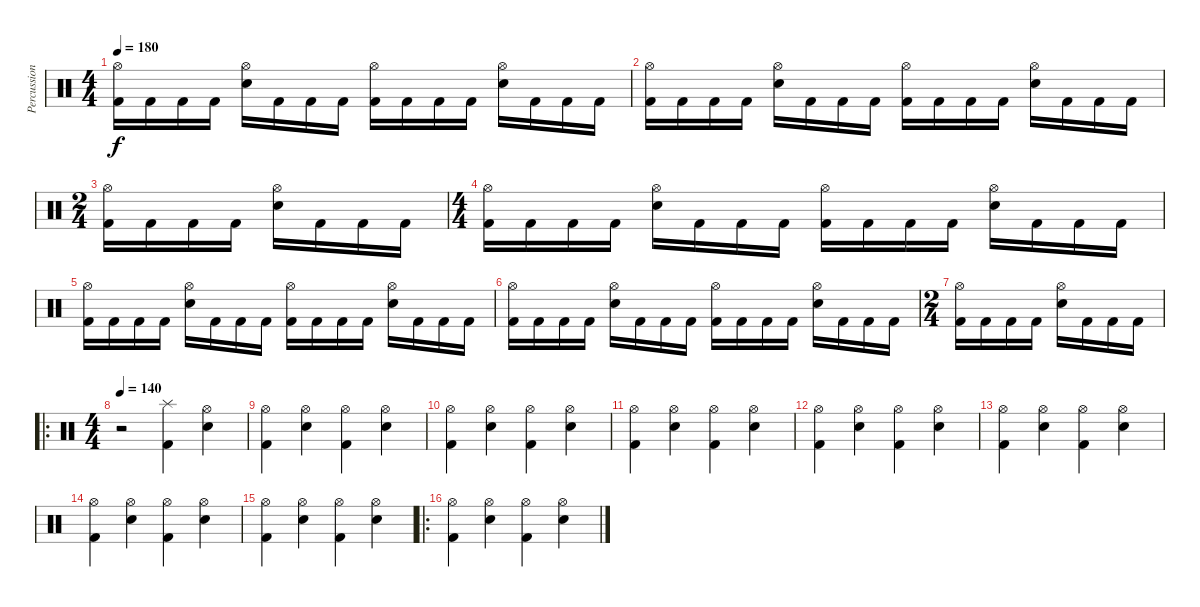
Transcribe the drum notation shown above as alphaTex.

\track ("Percussion" "Percussion") {instrument percussion}
\staff {score}
\articulation defaults
\ts (4 4)
\tempo 180
\clef neutral
\ks c
("Kick (hit) 2" "Hi-Hat (open)").16{dy f} "Kick (hit) 2".16 "Kick (hit) 2".16 "Kick (hit) 2".16 ("Snare (hit) 2" "Hi-Hat (open)").16 "Kick (hit) 2".16 "Kick (hit) 2".16 "Kick (hit) 2".16 ("Kick (hit) 2" "Hi-Hat (open)").16 "Kick (hit) 2".16 "Kick (hit) 2".16 "Kick (hit) 2".16 ("Snare (hit) 2" "Hi-Hat (open)").16 "Kick (hit) 2".16 "Kick (hit) 2".16 "Kick (hit) 2".16 |
("Kick (hit) 2" "Hi-Hat (open)").16 "Kick (hit) 2".16 "Kick (hit) 2".16 "Kick (hit) 2".16 ("Snare (hit) 2" "Hi-Hat (open)").16 "Kick (hit) 2".16 "Kick (hit) 2".16 "Kick (hit) 2".16 ("Kick (hit) 2" "Hi-Hat (open)").16 "Kick (hit) 2".16 "Kick (hit) 2".16 "Kick (hit) 2".16 ("Snare (hit) 2" "Hi-Hat (open)").16 "Kick (hit) 2".16 "Kick (hit) 2".16 "Kick (hit) 2".16 |
\ts (2 4)
("Kick (hit) 2" "Hi-Hat (open)").16 "Kick (hit) 2".16 "Kick (hit) 2".16 "Kick (hit) 2".16 ("Snare (hit) 2" "Hi-Hat (open)").16 "Kick (hit) 2".16 "Kick (hit) 2".16 "Kick (hit) 2".16 |
\ts (4 4)
("Kick (hit) 2" "Hi-Hat (open)").16 "Kick (hit) 2".16 "Kick (hit) 2".16 "Kick (hit) 2".16 ("Snare (hit) 2" "Hi-Hat (open)").16 "Kick (hit) 2".16 "Kick (hit) 2".16 "Kick (hit) 2".16 ("Kick (hit) 2" "Hi-Hat (open)").16 "Kick (hit) 2".16 "Kick (hit) 2".16 "Kick (hit) 2".16 ("Snare (hit) 2" "Hi-Hat (open)").16 "Kick (hit) 2".16 "Kick (hit) 2".16 "Kick (hit) 2".16 |
("Kick (hit) 2" "Hi-Hat (open)").16 "Kick (hit) 2".16 "Kick (hit) 2".16 "Kick (hit) 2".16 ("Snare (hit) 2" "Hi-Hat (open)").16 "Kick (hit) 2".16 "Kick (hit) 2".16 "Kick (hit) 2".16 ("Kick (hit) 2" "Hi-Hat (open)").16 "Kick (hit) 2".16 "Kick (hit) 2".16 "Kick (hit) 2".16 ("Snare (hit) 2" "Hi-Hat (open)").16 "Kick (hit) 2".16 "Kick (hit) 2".16 "Kick (hit) 2".16 |
("Kick (hit) 2" "Hi-Hat (open)").16 "Kick (hit) 2".16 "Kick (hit) 2".16 "Kick (hit) 2".16 ("Snare (hit) 2" "Hi-Hat (open)").16 "Kick (hit) 2".16 "Kick (hit) 2".16 "Kick (hit) 2".16 ("Kick (hit) 2" "Hi-Hat (open)").16 "Kick (hit) 2".16 "Kick (hit) 2".16 "Kick (hit) 2".16 ("Snare (hit) 2" "Hi-Hat (open)").16 "Kick (hit) 2".16 "Kick (hit) 2".16 "Kick (hit) 2".16 |
\ts (2 4)
("Kick (hit) 2" "Hi-Hat (open)").16 "Kick (hit) 2".16 "Kick (hit) 2".16 "Kick (hit) 2".16 ("Snare (hit) 2" "Hi-Hat (open)").16 "Kick (hit) 2".16 "Kick (hit) 2".16 "Kick (hit) 2".16 |
\ro
\ts (4 4)
\tempo 140
r.2 ("Kick (hit) 2" "Splash (hit)").4 ("Snare (hit) 2" "Hi-Hat (open)").4 |
("Kick (hit) 2" "Hi-Hat (open)").4 ("Snare (hit) 2" "Hi-Hat (open)").4 ("Kick (hit) 2" "Hi-Hat (open)").4 ("Snare (hit) 2" "Hi-Hat (open)").4 |
("Kick (hit) 2" "Hi-Hat (open)").4 ("Snare (hit) 2" "Hi-Hat (open)").4 ("Kick (hit) 2" "Hi-Hat (open)").4 ("Snare (hit) 2" "Hi-Hat (open)").4 |
("Kick (hit) 2" "Hi-Hat (open)").4 ("Snare (hit) 2" "Hi-Hat (open)").4 ("Kick (hit) 2" "Hi-Hat (open)").4 ("Snare (hit) 2" "Hi-Hat (open)").4 |
("Kick (hit) 2" "Hi-Hat (open)").4 ("Snare (hit) 2" "Hi-Hat (open)").4 ("Kick (hit) 2" "Hi-Hat (open)").4 ("Snare (hit) 2" "Hi-Hat (open)").4 |
("Kick (hit) 2" "Hi-Hat (open)").4 ("Snare (hit) 2" "Hi-Hat (open)").4 ("Kick (hit) 2" "Hi-Hat (open)").4 ("Snare (hit) 2" "Hi-Hat (open)").4 |
("Kick (hit) 2" "Hi-Hat (open)").4 ("Snare (hit) 2" "Hi-Hat (open)").4 ("Kick (hit) 2" "Hi-Hat (open)").4 ("Snare (hit) 2" "Hi-Hat (open)").4 |
("Kick (hit) 2" "Hi-Hat (open)").4 ("Snare (hit) 2" "Hi-Hat (open)").4 ("Kick (hit) 2" "Hi-Hat (open)").4 ("Snare (hit) 2" "Hi-Hat (open)").4 |
\ro
("Kick (hit) 2" "Hi-Hat (open)").4 ("Snare (hit) 2" "Hi-Hat (open)").4 ("Kick (hit) 2" "Hi-Hat (open)").4 ("Snare (hit) 2" "Hi-Hat (open)").4
